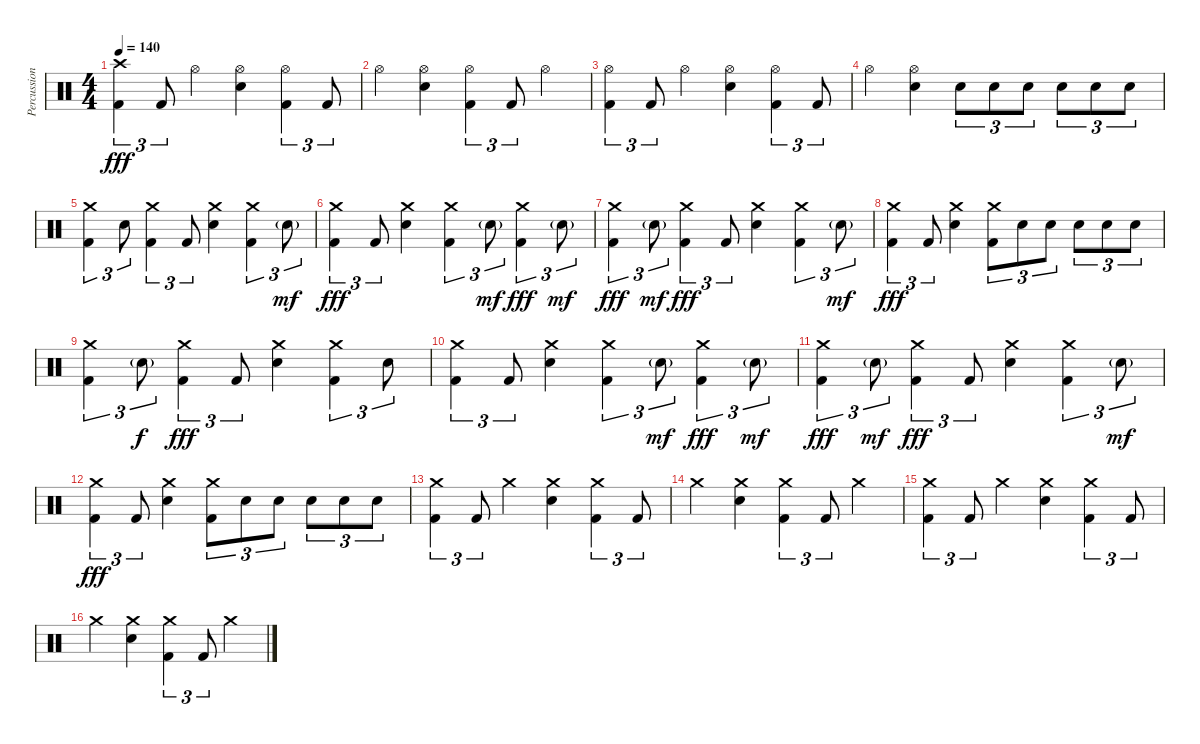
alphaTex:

\track ("Percussion" "Percussion") {instrument percussion}
\staff {score}
\articulation defaults
\ts (4 4)
\tempo 140
\clef neutral
\ks c
("Crash high (hit)" "Kick (hit) 2").4{tu (3 2) dy fff} "Kick (hit) 2".8{tu (3 2)} "Hi-Hat (open)".4 ("Hi-Hat (open)" "Electric Snare (hit)").4 ("Hi-Hat (open)" "Kick (hit) 2").4{tu (3 2)} "Kick (hit) 2".8{tu (3 2)} |
"Hi-Hat (open)".4 ("Hi-Hat (open)" "Electric Snare (hit)").4 ("Hi-Hat (open)" "Kick (hit) 2").4{tu (3 2)} "Kick (hit) 2".8{tu (3 2)} "Hi-Hat (open)".4 |
("Hi-Hat (open)" "Kick (hit) 2").4{tu (3 2)} "Kick (hit) 2".8{tu (3 2)} "Hi-Hat (open)".4 ("Hi-Hat (open)" "Electric Snare (hit)").4 ("Hi-Hat (open)" "Kick (hit) 2").4{tu (3 2)} "Kick (hit) 2".8{tu (3 2)} |
"Hi-Hat (open)".4 ("Hi-Hat (open)" "Electric Snare (hit)").4 "Electric Snare (hit)".8{tu (3 2)} "Electric Snare (hit)".8{tu (3 2)} "Electric Snare (hit)".8{tu (3 2)} "Electric Snare (hit)".8{tu (3 2)} "Electric Snare (hit)".8{tu (3 2)} "Electric Snare (hit)".8{tu (3 2)} |
("Crash medium (hit)" "Kick (hit) 2").4{tu (3 2)} "Electric Snare (hit)".8{tu (3 2)} ("Crash medium (hit)" "Kick (hit) 2").4{tu (3 2)} "Kick (hit) 2".8{tu (3 2)} ("Crash medium (hit)" "Electric Snare (hit)").4 ("Crash medium (hit)" "Kick (hit) 2").4{tu (3 2)} "Electric Snare (hit)"{g}.8{tu (3 2) dy mf} |
("Crash medium (hit)" "Kick (hit) 2").4{tu (3 2) dy fff} "Kick (hit) 2".8{tu (3 2)} ("Crash medium (hit)" "Electric Snare (hit)").4 ("Crash medium (hit)" "Kick (hit) 2").4{tu (3 2)} "Electric Snare (hit)"{g}.8{tu (3 2) dy mf} ("Crash medium (hit)" "Kick (hit) 2").4{tu (3 2) dy fff} "Electric Snare (hit)"{g}.8{tu (3 2) dy mf} |
("Crash medium (hit)" "Kick (hit) 2").4{tu (3 2) dy fff} "Electric Snare (hit)"{g}.8{tu (3 2) dy mf} ("Crash medium (hit)" "Kick (hit) 2").4{tu (3 2) dy fff} "Kick (hit) 2".8{tu (3 2)} ("Crash medium (hit)" "Electric Snare (hit)").4 ("Crash medium (hit)" "Kick (hit) 2").4{tu (3 2)} "Electric Snare (hit)"{g}.8{tu (3 2) dy mf} |
("Crash medium (hit)" "Kick (hit) 2").4{tu (3 2) dy fff} "Kick (hit) 2".8{tu (3 2)} ("Crash medium (hit)" "Electric Snare (hit)").4 ("Crash medium (hit)" "Kick (hit) 2").8{tu (3 2)} "Electric Snare (hit)".8{tu (3 2)} "Electric Snare (hit)".8{tu (3 2)} "Electric Snare (hit)".8{tu (3 2)} "Electric Snare (hit)".8{tu (3 2)} "Electric Snare (hit)".8{tu (3 2)} |
("Crash medium (hit)" "Kick (hit) 2").4{tu (3 2)} "Electric Snare (hit)"{g}.8{tu (3 2) dy f} ("Crash medium (hit)" "Kick (hit) 2").4{tu (3 2) dy fff} "Kick (hit) 2".8{tu (3 2)} ("Crash medium (hit)" "Electric Snare (hit)").4 ("Crash medium (hit)" "Kick (hit) 2").4{tu (3 2)} "Electric Snare (hit)".8{tu (3 2)} |
("Crash medium (hit)" "Kick (hit) 2").4{tu (3 2)} "Kick (hit) 2".8{tu (3 2)} ("Crash medium (hit)" "Electric Snare (hit)").4 ("Crash medium (hit)" "Kick (hit) 2").4{tu (3 2)} "Electric Snare (hit)"{g}.8{tu (3 2) dy mf} ("Crash medium (hit)" "Kick (hit) 2").4{tu (3 2) dy fff} "Electric Snare (hit)"{g}.8{tu (3 2) dy mf} |
("Crash medium (hit)" "Kick (hit) 2").4{tu (3 2) dy fff} "Electric Snare (hit)"{g}.8{tu (3 2) dy mf} ("Crash medium (hit)" "Kick (hit) 2").4{tu (3 2) dy fff} "Kick (hit) 2".8{tu (3 2)} ("Crash medium (hit)" "Electric Snare (hit)").4 ("Crash medium (hit)" "Kick (hit) 2").4{tu (3 2)} "Electric Snare (hit)"{g}.8{tu (3 2) dy mf} |
("Crash medium (hit)" "Kick (hit) 2").4{tu (3 2) dy fff} "Kick (hit) 2".8{tu (3 2)} ("Crash medium (hit)" "Electric Snare (hit)").4 ("Crash medium (hit)" "Kick (hit) 2").8{tu (3 2)} "Electric Snare (hit)".8{tu (3 2)} "Electric Snare (hit)".8{tu (3 2)} "Electric Snare (hit)".8{tu (3 2)} "Electric Snare (hit)".8{tu (3 2)} "Electric Snare (hit)".8{tu (3 2)} |
("Crash medium (hit)" "Kick (hit) 2").4{tu (3 2)} "Kick (hit) 2".8{tu (3 2)} "Crash medium (hit)".4 ("Crash medium (hit)" "Electric Snare (hit)").4 ("Crash medium (hit)" "Kick (hit) 2").4{tu (3 2)} "Kick (hit) 2".8{tu (3 2)} |
"Crash medium (hit)".4 ("Crash medium (hit)" "Electric Snare (hit)").4 ("Crash medium (hit)" "Kick (hit) 2").4{tu (3 2)} "Kick (hit) 2".8{tu (3 2)} "Crash medium (hit)".4 |
("Crash medium (hit)" "Kick (hit) 2").4{tu (3 2)} "Kick (hit) 2".8{tu (3 2)} "Crash medium (hit)".4 ("Crash medium (hit)" "Electric Snare (hit)").4 ("Crash medium (hit)" "Kick (hit) 2").4{tu (3 2)} "Kick (hit) 2".8{tu (3 2)} |
"Crash medium (hit)".4 ("Crash medium (hit)" "Electric Snare (hit)").4 ("Crash medium (hit)" "Kick (hit) 2").4{tu (3 2)} "Kick (hit) 2".8{tu (3 2)} "Crash medium (hit)".4
